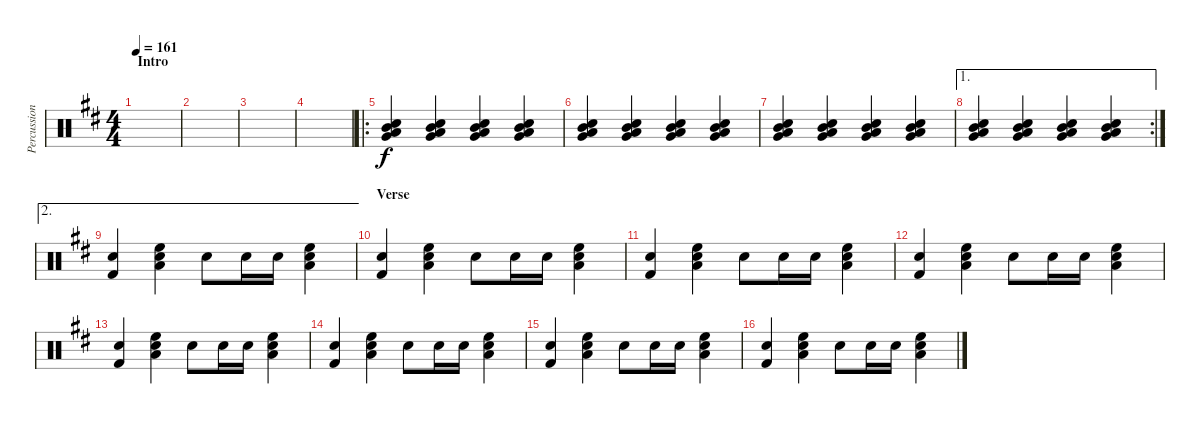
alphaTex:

\track ("Percussion" "Percussion") {instrument percussion}
\staff {score}
\articulation defaults
\ts (4 4)
\section ("" "Intro")
\tempo 161
\clef neutral
\ks d
|
|
|
|
\ro
("Low Tom (hit)" "Mid Tom (hit)" "Electric Snare (hit)" "Very Low Tom (hit)").4 ("Low Tom (hit)" "Mid Tom (hit)" "Electric Snare (hit)" "Very Low Tom (hit)").4 ("Low Tom (hit)" "Mid Tom (hit)" "Electric Snare (hit)" "Very Low Tom (hit)").4 ("Low Tom (hit)" "Mid Tom (hit)" "Electric Snare (hit)" "Very Low Tom (hit)").4 |
("Low Tom (hit)" "Mid Tom (hit)" "Electric Snare (hit)" "Very Low Tom (hit)").4 ("Low Tom (hit)" "Mid Tom (hit)" "Electric Snare (hit)" "Very Low Tom (hit)").4 ("Low Tom (hit)" "Mid Tom (hit)" "Electric Snare (hit)" "Very Low Tom (hit)").4 ("Low Tom (hit)" "Mid Tom (hit)" "Electric Snare (hit)" "Very Low Tom (hit)").4 |
("Low Tom (hit)" "Mid Tom (hit)" "Electric Snare (hit)" "Very Low Tom (hit)").4 ("Low Tom (hit)" "Mid Tom (hit)" "Electric Snare (hit)" "Very Low Tom (hit)").4 ("Low Tom (hit)" "Mid Tom (hit)" "Electric Snare (hit)" "Very Low Tom (hit)").4 ("Low Tom (hit)" "Mid Tom (hit)" "Electric Snare (hit)" "Very Low Tom (hit)").4 |
\ae 1
\rc 2
("Low Tom (hit)" "Mid Tom (hit)" "Electric Snare (hit)" "Very Low Tom (hit)").4 ("Low Tom (hit)" "Mid Tom (hit)" "Electric Snare (hit)" "Very Low Tom (hit)").4 ("Low Tom (hit)" "Mid Tom (hit)" "Electric Snare (hit)" "Very Low Tom (hit)").4 ("Low Tom (hit)" "Mid Tom (hit)" "Electric Snare (hit)" "Very Low Tom (hit)").4 |
\ae 2
("Kick (hit) 2" "Electric Snare (hit)").4 ("Low Tom (hit)" "High Floor Tom (hit)" "Electric Snare (hit)").4 "Electric Snare (hit)".8 "Electric Snare (hit)".16 "Electric Snare (hit)".16 ("Low Tom (hit)" "High Floor Tom (hit)" "Electric Snare (hit)").4 |
\section ("" "Verse")
("Kick (hit) 2" "Electric Snare (hit)").4 ("Low Tom (hit)" "High Floor Tom (hit)" "Electric Snare (hit)").4 "Electric Snare (hit)".8 "Electric Snare (hit)".16 "Electric Snare (hit)".16 ("Low Tom (hit)" "High Floor Tom (hit)" "Electric Snare (hit)").4 |
("Kick (hit) 2" "Electric Snare (hit)").4 ("Low Tom (hit)" "High Floor Tom (hit)" "Electric Snare (hit)").4 "Electric Snare (hit)".8 "Electric Snare (hit)".16 "Electric Snare (hit)".16 ("Low Tom (hit)" "High Floor Tom (hit)" "Electric Snare (hit)").4 |
("Kick (hit) 2" "Electric Snare (hit)").4 ("Low Tom (hit)" "High Floor Tom (hit)" "Electric Snare (hit)").4 "Electric Snare (hit)".8 "Electric Snare (hit)".16 "Electric Snare (hit)".16 ("Low Tom (hit)" "High Floor Tom (hit)" "Electric Snare (hit)").4 |
("Kick (hit) 2" "Electric Snare (hit)").4 ("Low Tom (hit)" "High Floor Tom (hit)" "Electric Snare (hit)").4 "Electric Snare (hit)".8 "Electric Snare (hit)".16 "Electric Snare (hit)".16 ("Low Tom (hit)" "High Floor Tom (hit)" "Electric Snare (hit)").4 |
("Kick (hit) 2" "Electric Snare (hit)").4 ("Low Tom (hit)" "High Floor Tom (hit)" "Electric Snare (hit)").4 "Electric Snare (hit)".8 "Electric Snare (hit)".16 "Electric Snare (hit)".16 ("Low Tom (hit)" "High Floor Tom (hit)" "Electric Snare (hit)").4 |
("Kick (hit) 2" "Electric Snare (hit)").4 ("Low Tom (hit)" "High Floor Tom (hit)" "Electric Snare (hit)").4 "Electric Snare (hit)".8 "Electric Snare (hit)".16 "Electric Snare (hit)".16 ("Low Tom (hit)" "High Floor Tom (hit)" "Electric Snare (hit)").4 |
("Kick (hit) 2" "Electric Snare (hit)").4 ("Low Tom (hit)" "High Floor Tom (hit)" "Electric Snare (hit)").4 "Electric Snare (hit)".8 "Electric Snare (hit)".16 "Electric Snare (hit)".16 ("Low Tom (hit)" "High Floor Tom (hit)" "Electric Snare (hit)").4
